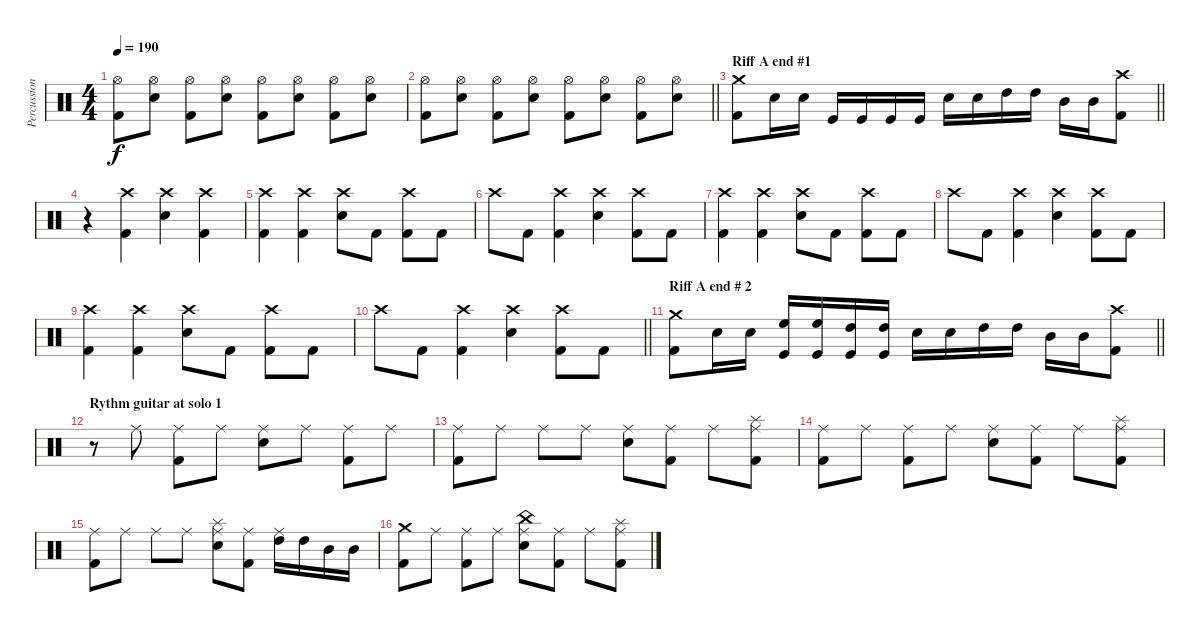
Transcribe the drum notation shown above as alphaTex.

\track ("Percussions" "Percussion") {instrument percussion}
\staff {score}
\articulation defaults
\ts (4 4)
\tempo 190
\clef neutral
\ks c
("Hi-Hat (open)" "Kick (hit) 2").8{dy f} ("Hi-Hat (open)" "Electric Snare (hit)").8 ("Hi-Hat (open)" "Kick (hit) 2").8 ("Hi-Hat (open)" "Electric Snare (hit)").8 ("Hi-Hat (open)" "Kick (hit) 2").8 ("Hi-Hat (open)" "Electric Snare (hit)").8 ("Hi-Hat (open)" "Kick (hit) 2").8 ("Hi-Hat (open)" "Electric Snare (hit)").8 |
\barLineRight lightlight
("Hi-Hat (open)" "Kick (hit) 2").8 ("Hi-Hat (open)" "Electric Snare (hit)").8 ("Hi-Hat (open)" "Kick (hit) 2").8 ("Hi-Hat (open)" "Electric Snare (hit)").8 ("Hi-Hat (open)" "Kick (hit) 2").8 ("Hi-Hat (open)" "Electric Snare (hit)").8 ("Hi-Hat (open)" "Kick (hit) 2").8 ("Hi-Hat (open)" "Electric Snare (hit)").8 |
\section ("" "Riff A end #1")
\barLineRight lightlight
("Crash medium (hit)" "Kick (hit) 2").8 "Electric Snare (hit)".16 "Electric Snare (hit)".16 "Kick (hit)".16 "Kick (hit)".16 "Kick (hit)".16 "Kick (hit)".16 "Electric Snare (hit)".16 "Electric Snare (hit)".16 "High Tom (hit)".16 "High Tom (hit)".16 "Mid Tom (hit)".16 "Mid Tom (hit)".16 ("Crash high (hit)" "Kick (hit) 2").8 |
r.4 ("Crash high (hit)" "Kick (hit) 2").4 ("Crash high (hit)" "Electric Snare (hit)").4 ("Crash high (hit)" "Kick (hit) 2").4 |
("Crash high (hit)" "Kick (hit) 2").4 ("Crash high (hit)" "Kick (hit) 2").4 ("Crash high (hit)" "Electric Snare (hit)").8 "Kick (hit) 2".8 ("Crash high (hit)" "Kick (hit) 2").8 "Kick (hit) 2".8 |
"Crash high (hit)".8 "Kick (hit) 2".8 ("Crash high (hit)" "Kick (hit) 2").4 ("Crash high (hit)" "Electric Snare (hit)").4 ("Crash high (hit)" "Kick (hit) 2").8 "Kick (hit) 2".8 |
("Crash high (hit)" "Kick (hit) 2").4 ("Crash high (hit)" "Kick (hit) 2").4 ("Crash high (hit)" "Electric Snare (hit)").8 "Kick (hit) 2".8 ("Crash high (hit)" "Kick (hit) 2").8 "Kick (hit) 2".8 |
"Crash high (hit)".8 "Kick (hit) 2".8 ("Crash high (hit)" "Kick (hit) 2").4 ("Crash high (hit)" "Electric Snare (hit)").4 ("Crash high (hit)" "Kick (hit) 2").8 "Kick (hit) 2".8 |
("Crash high (hit)" "Kick (hit) 2").4 ("Crash high (hit)" "Kick (hit) 2").4 ("Crash high (hit)" "Electric Snare (hit)").8 "Kick (hit) 2".8 ("Crash high (hit)" "Kick (hit) 2").8 "Kick (hit) 2".8 |
\barLineRight lightlight "Crash high (hit)".8 "Kick (hit) 2".8
("Crash high (hit)" "Kick (hit) 2").4 ("Crash high (hit)" "Electric Snare (hit)").4 ("Crash high (hit)" "Kick (hit) 2").8 "Kick (hit) 2".8 |
\section ("" "Riff A end # 2")
\barLineRight lightlight
("Crash medium (hit)" "Kick (hit) 2").8 "Electric Snare (hit)".16 "Electric Snare (hit)".16 ("High Floor Tom (hit)" "Kick (hit)").16 ("High Floor Tom (hit)" "Kick (hit)").16 ("High Tom (hit)" "Kick (hit)").16 ("High Tom (hit)" "Kick (hit)").16 "Electric Snare (hit)".16 "Electric Snare (hit)".16 "High Tom (hit)".16 "High Tom (hit)".16 "Mid Tom (hit)".16 "Mid Tom (hit)".16 ("Crash high (hit)" "Kick (hit) 2").8 |
\section ("" "Rythm guitar at solo 1")
r.8 "Ride (middle)".8 ("Ride (middle)" "Kick (hit) 2").8 "Ride (middle)".8 ("Ride (middle)" "Electric Snare (hit)").8 "Ride (middle)".8 ("Ride (middle)" "Kick (hit) 2").8 "Ride (middle)".8 |
("Ride (middle)" "Kick (hit) 2").8 "Ride (middle)".8 "Ride (middle)".8 "Ride (middle)".8 ("Ride (middle)" "Electric Snare (hit)").8 ("Ride (middle)" "Kick (hit) 2").8 "Ride (middle)".8 ("Ride (middle)" "Splash (hit)" "Kick (hit) 2").8 |
("Ride (middle)" "Kick (hit) 2").8 "Ride (middle)".8 ("Ride (middle)" "Kick (hit) 2").8 "Ride (middle)".8 ("Ride (middle)" "Electric Snare (hit)").8 ("Ride (middle)" "Kick (hit) 2").8 "Ride (middle)".8 ("Ride (middle)" "Splash (hit)" "Kick (hit) 2").8 |
("Ride (middle)" "Kick (hit) 2").8 "Ride (middle)".8 "Ride (middle)".8 "Ride (middle)".8 ("Ride (middle)" "Splash (hit)" "Electric Snare (hit)").8 ("Ride (middle)" "Kick (hit) 2").8 ("Ride (middle)" "High Tom (hit)").16 "High Tom (hit)".16 "Mid Tom (hit)".16 "Mid Tom (hit)".16 |
("Crash medium (hit)" "Kick (hit) 2").8 "Ride (middle)".8 ("Ride (middle)" "Kick (hit) 2").8 "Ride (middle)".8 ("Ride (middle)" "China (hit)" "Electric Snare (hit)").8 ("Ride (middle)" "Kick (hit) 2").8 "Ride (middle)".8 ("Ride (middle)" "Splash (hit)" "Kick (hit) 2").8
